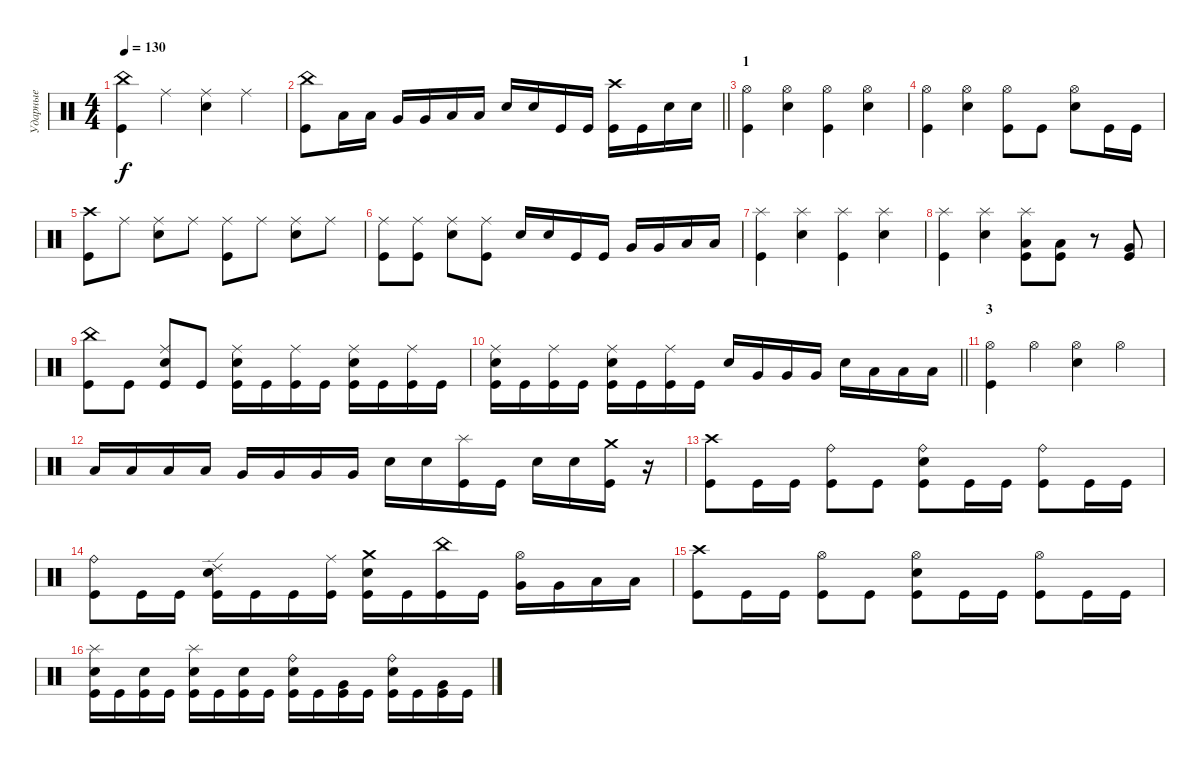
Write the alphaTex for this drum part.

\track ("Ударные" "Ударные") {instrument percussion}
\staff {score}
\articulation defaults
\ts (4 4)
\tempo 130
\clef neutral
\ks c
("China (hit)" "Kick (hit)").4{dy f} "Ride (middle)".4 ("Ride (middle)" "Electric Snare (hit)").4 "Ride (middle)".4 |
\barLineRight lightlight
("China (hit)" "Kick (hit)").8 "Low Tom (hit)".16 "Low Tom (hit)".16 "Very Low Tom (hit)".16 "Very Low Tom (hit)".16 "Low Floor Tom (hit)".16 "Low Floor Tom (hit)".16 "Electric Snare (hit)".16 "Electric Snare (hit)".16 "Kick (hit)".16 "Kick (hit)".16 ("Crash high (hit)" "Kick (hit)").16 "Kick (hit)".16 "Electric Snare (hit)".16 "Electric Snare (hit)".16 |
\section ("" "1")
("Hi-Hat (open)" "Kick (hit)").4 ("Hi-Hat (open)" "Electric Snare (hit)").4 ("Hi-Hat (open)" "Kick (hit)").4 ("Hi-Hat (open)" "Electric Snare (hit)").4 |
("Hi-Hat (open)" "Kick (hit)").4 ("Hi-Hat (open)" "Electric Snare (hit)").4 ("Hi-Hat (open)" "Kick (hit)").8 "Kick (hit)".8 ("Hi-Hat (open)" "Electric Snare (hit)").8 "Kick (hit)".16 "Kick (hit)".16 |
("Crash high (hit)" "Kick (hit)").8 "Ride (middle)".8 ("Ride (middle)" "Electric Snare (hit)").8 "Ride (middle)".8 ("Ride (middle)" "Kick (hit)").8 "Ride (middle)".8 ("Ride (middle)" "Electric Snare (hit)").8 "Ride (middle)".8 |
("Ride (middle)" "Kick (hit)").8 ("Ride (middle)" "Kick (hit)").8 ("Ride (middle)" "Electric Snare (hit)").8 ("Ride (middle)" "Kick (hit)").8 "Electric Snare (hit)".16 "Electric Snare (hit)".16 "Kick (hit)".16 "Kick (hit)".16 "Very Low Tom (hit)".16 "Very Low Tom (hit)".16 "Low Floor Tom (hit)".16 "Low Floor Tom (hit)".16 |
("Splash (hit)" "Kick (hit)").4 ("Splash (hit)" "Electric Snare (hit)").4 ("Splash (hit)" "Kick (hit)").4 ("Splash (hit)" "Electric Snare (hit)").4 |
("Splash (hit)" "Kick (hit)").4 ("Splash (hit)" "Electric Snare (hit)").4 ("Splash (hit)" "Low Tom (hit)" "Kick (hit)").8 ("Low Tom (hit)" "Kick (hit)").8 r.8 ("Very Low Tom (hit)" "Kick (hit)").8 |
("China (hit)" "Kick (hit)").8 "Kick (hit)".8 ("Ride (middle)" "Electric Snare (hit)" "Kick (hit)").8 "Kick (hit)".8 ("Ride (middle)" "Electric Snare (hit)" "Kick (hit)").16 "Kick (hit)".16 ("Ride (middle)" "Kick (hit)").16 "Kick (hit)".16 ("Ride (middle)" "Electric Snare (hit)" "Kick (hit)").16 "Kick (hit)".16 ("Ride (middle)" "Kick (hit)").16 "Kick (hit)".16 |
\barLineRight lightlight
("Ride (middle)" "Electric Snare (hit)" "Kick (hit)").16 "Kick (hit)".16 ("Ride (middle)" "Kick (hit)").16 "Kick (hit)".16 ("Ride (middle)" "Electric Snare (hit)" "Kick (hit)").16 "Kick (hit)".16 ("Ride (middle)" "Kick (hit)").16 "Kick (hit)".16 "Electric Snare (hit)".16 "Very Low Tom (hit)".16 "Very Low Tom (hit)".16 "Very Low Tom (hit)".16 "Electric Snare (hit)".16 "Low Floor Tom (hit)".16 "Low Floor Tom (hit)".16 "Low Floor Tom (hit)".16 |
\section ("" "3")
("Hi-Hat (open)" "Kick (hit)").4 "Hi-Hat (open)".4 ("Hi-Hat (open)" "Electric Snare (hit)").4 "Hi-Hat (open)".4 |
"Low Tom (hit)".16 "Low Tom (hit)".16 "Low Tom (hit)".16 "Low Tom (hit)".16 "Very Low Tom (hit)".16 "Very Low Tom (hit)".16 "Very Low Tom (hit)".16 "Very Low Tom (hit)".16 "Electric Snare (hit)".16 "Electric Snare (hit)".16 ("Splash (hit)" "Kick (hit)").16 "Kick (hit)".16 "Electric Snare (hit)".16 "Electric Snare (hit)".16 ("Crash medium (hit)" "Kick (hit)").16 r.16 |
("Crash high (hit)" "Kick (hit)").8 "Kick (hit)".16 "Kick (hit)".16 ("Ride (bell)" "Kick (hit)").8 "Kick (hit)".8 ("Ride (bell)" "Electric Snare (hit)" "Kick (hit)").8 "Kick (hit)".16 "Kick (hit)".16 ("Ride (bell)" "Kick (hit)").8 "Kick (hit)".16 "Kick (hit)".16 |
("Ride (bell)" "Kick (hit)").8 "Kick (hit)".16 "Kick (hit)".16 ("Ride (edge) 2" "Electric Snare (hit)" "Kick (hit)").16 "Kick (hit)".16 "Kick (hit)".16 ("Ride (middle)" "Kick (hit)").16 ("Crash medium (hit)" "Electric Snare (hit)" "Kick (hit)").16 "Kick (hit)".16 ("China (hit)" "Kick (hit)").16 "Kick (hit)".16 ("Hi-Hat (open)" "Very Low Tom (hit)").16 "Very Low Tom (hit)".16 "Low Floor Tom (hit)".16 "Low Floor Tom (hit)".16 |
("Crash high (hit)" "Kick (hit)").8 "Kick (hit)".16 "Kick (hit)".16 ("Hi-Hat (open)" "Kick (hit)").8 "Kick (hit)".8 ("Hi-Hat (open)" "Electric Snare (hit)" "Kick (hit)").8 "Kick (hit)".16 "Kick (hit)".16 ("Hi-Hat (open)" "Kick (hit)").8 "Kick (hit)".16 "Kick (hit)".16 |
("Splash (hit)" "Electric Snare (hit)" "Kick (hit)").16 "Kick (hit)".16 ("Electric Snare (hit)" "Kick (hit)").16 "Kick (hit)".16 ("Splash (hit)" "Electric Snare (hit)" "Kick (hit)").16 "Kick (hit)".16 ("Electric Snare (hit)" "Kick (hit)").16 "Kick (hit)".16 ("Ride (bell)" "Electric Snare (hit)" "Kick (hit)").16 "Kick (hit)".16 ("Very Low Tom (hit)" "Kick (hit)").16 "Kick (hit)".16 ("Ride (bell)" "Electric Snare (hit)" "Kick (hit)").16 "Kick (hit)".16 ("Very Low Tom (hit)" "Kick (hit)").16 "Kick (hit)".16
